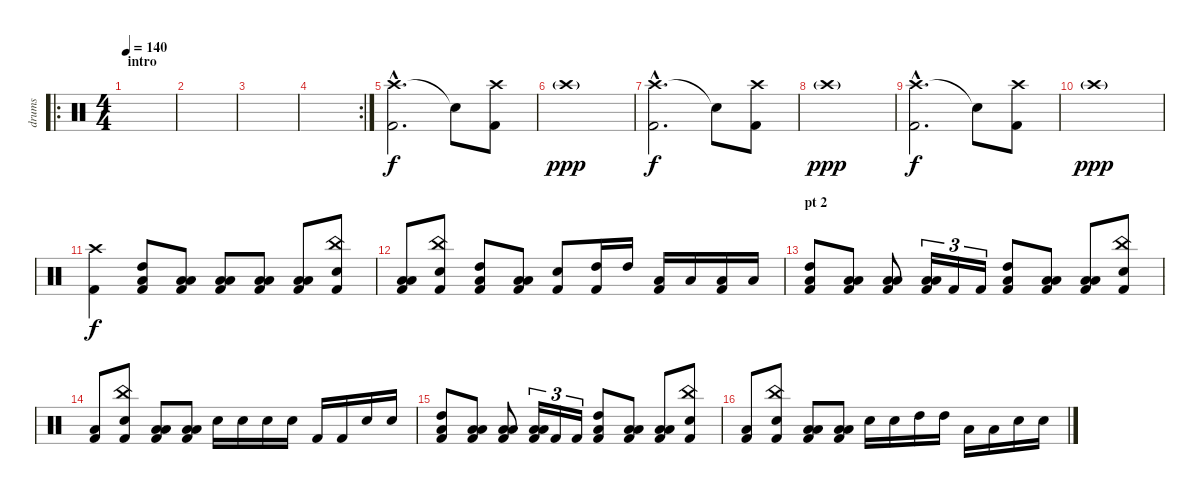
\track ("drums" "drums") {instrument percussion}
\staff {score}
\articulation defaults
\ro
\ts (4 4)
\section ("" "intro")
\tempo 140
\clef neutral
\ks c
|
|
|
\rc 2
|
\section ("" "")
("Crash high (hit)"{hac} "Kick (hit) 2"{hac}).2{d} "Snare (hit)"{t}.8 ("Crash high (hit)"{pm} "Kick (hit) 2").8 |
"Crash high (hit)"{g}.1{dy ppp} |
("Crash high (hit)"{hac} "Kick (hit) 2"{hac}).2{d dy f} "Snare (hit)"{t}.8 ("Crash high (hit)"{pm} "Kick (hit) 2").8 |
"Crash high (hit)"{g}.1{dy ppp} |
("Crash high (hit)"{hac} "Kick (hit) 2"{hac}).2{d dy f} "Snare (hit)"{t}.8 ("Crash high (hit)"{pm} "Kick (hit) 2").8 |
"Crash high (hit)"{g}.1{dy ppp} |
("Crash high (hit)" "Kick (hit) 2").4{dy f} ("High Tom (hit)" "Low Floor Tom (hit)" "Kick (hit) 2").8 ("Low Tom (hit)" "Low Floor Tom (hit)" "Kick (hit) 2").8 ("Low Tom (hit)" "Low Floor Tom (hit)" "Kick (hit) 2").8 ("Low Tom (hit)" "Low Floor Tom (hit)" "Kick (hit) 2").8 ("Low Tom (hit)" "Low Floor Tom (hit)" "Kick (hit) 2").8 ("China (hit)" "Electric Snare (hit)" "Kick (hit) 2").8 |
("Low Tom (hit)" "Low Floor Tom (hit)" "Kick (hit) 2").8 ("China (hit)" "Electric Snare (hit)" "Kick (hit) 2").8 ("High Tom (hit)" "Low Floor Tom (hit)" "Kick (hit) 2").8 ("Low Tom (hit)" "Low Floor Tom (hit)" "Kick (hit) 2").8 ("Electric Snare (hit)" "Kick (hit) 2").8 ("High Tom (hit)" "Kick (hit) 2").16 "High Tom (hit)".16 ("Low Tom (hit)" "Kick (hit) 2").16 "Low Tom (hit)".16 ("Low Tom (hit)" "Kick (hit) 2").16 "Low Tom (hit)".16 |
\section ("" "pt 2")
("High Tom (hit)" "Low Floor Tom (hit)" "Kick (hit) 2").8 ("Low Tom (hit)" "Low Floor Tom (hit)" "Kick (hit) 2").8 ("Low Tom (hit)" "Low Floor Tom (hit)" "Kick (hit) 2").8 ("Low Tom (hit)" "Low Floor Tom (hit)" "Kick (hit) 2").16{tu (3 2)} "Kick (hit) 2".16{tu (3 2)} "Kick (hit) 2".16{tu (3 2)} ("High Tom (hit)" "Low Floor Tom (hit)" "Kick (hit) 2").8 ("Low Tom (hit)" "Low Floor Tom (hit)" "Kick (hit) 2").8 ("Low Tom (hit)" "Low Floor Tom (hit)" "Kick (hit) 2").8 ("China (hit)" "Electric Snare (hit)" "Kick (hit) 2").8 |
("Low Floor Tom (hit)" "Kick (hit) 2").8 ("China (hit)" "Electric Snare (hit)" "Kick (hit) 2").8 ("Low Tom (hit)" "Low Floor Tom (hit)" "Kick (hit) 2").8 ("Low Tom (hit)" "Low Floor Tom (hit)" "Kick (hit) 2").8 "Electric Snare (hit)".16 "Electric Snare (hit)".16 "Electric Snare (hit)".16 "Electric Snare (hit)".16 "Kick (hit) 2".16 "Kick (hit) 2".16 "Electric Snare (hit)".16 "Electric Snare (hit)".16 |
("High Tom (hit)" "Low Floor Tom (hit)" "Kick (hit) 2").8 ("Low Tom (hit)" "Low Floor Tom (hit)" "Kick (hit) 2").8 ("Low Tom (hit)" "Low Floor Tom (hit)" "Kick (hit) 2").8 ("Low Tom (hit)" "Low Floor Tom (hit)" "Kick (hit) 2").16{tu (3 2)} "Kick (hit) 2".16{tu (3 2)} "Kick (hit) 2".16{tu (3 2)} ("High Tom (hit)" "Low Floor Tom (hit)" "Kick (hit) 2").8 ("Low Tom (hit)" "Low Floor Tom (hit)" "Kick (hit) 2").8 ("Low Tom (hit)" "Low Floor Tom (hit)" "Kick (hit) 2").8 ("China (hit)" "Electric Snare (hit)" "Kick (hit) 2").8 |
("Low Floor Tom (hit)" "Kick (hit) 2").8 ("China (hit)" "Electric Snare (hit)" "Kick (hit) 2").8 ("Low Tom (hit)" "Low Floor Tom (hit)" "Kick (hit) 2").8 ("Low Tom (hit)" "Low Floor Tom (hit)" "Kick (hit) 2").8 "Electric Snare (hit)".16 "Electric Snare (hit)".16 "High Tom (hit)".16 "High Tom (hit)".16 "Low Tom (hit)".16 "Low Tom (hit)".16 "Electric Snare (hit)".16 "Electric Snare (hit)".16
